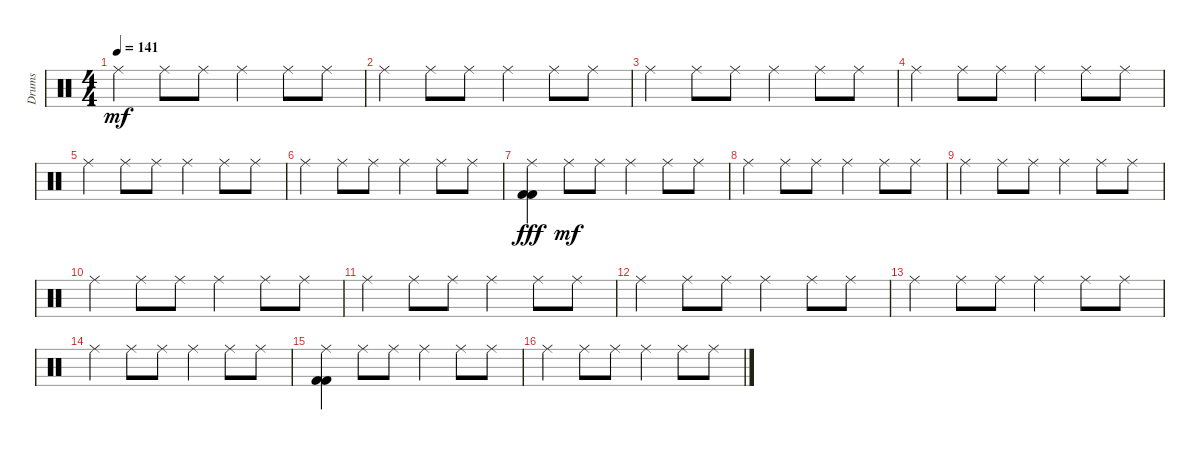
\track ("Drums" "Drums") {instrument percussion}
\staff {score}
\articulation defaults
\ts (4 4)
\tempo 141
\clef neutral
\ks c "Ride (middle)".4{dy mf} "Ride (middle)".8 "Ride (middle)".8 "Ride (middle)".4 "Ride (middle)".8 "Ride (middle)".8
|
"Ride (middle)".4 "Ride (middle)".8 "Ride (middle)".8 "Ride (middle)".4 "Ride (middle)".8 "Ride (middle)".8 |
"Ride (middle)".4 "Ride (middle)".8 "Ride (middle)".8 "Ride (middle)".4 "Ride (middle)".8 "Ride (middle)".8 |
"Ride (middle)".4 "Ride (middle)".8 "Ride (middle)".8 "Ride (middle)".4 "Ride (middle)".8 "Ride (middle)".8 |
"Ride (middle)".4 "Ride (middle)".8 "Ride (middle)".8 "Ride (middle)".4 "Ride (middle)".8 "Ride (middle)".8 |
"Ride (middle)".4 "Ride (middle)".8 "Ride (middle)".8 "Ride (middle)".4 "Ride (middle)".8 "Ride (middle)".8 |
("Ride (middle)" "Kick (hit) 2" "Kick (hit) 2").4{dy fff} "Ride (middle)".8{dy mf} "Ride (middle)".8 "Ride (middle)".4 "Ride (middle)".8 "Ride (middle)".8 |
"Ride (middle)".4 "Ride (middle)".8 "Ride (middle)".8 "Ride (middle)".4 "Ride (middle)".8 "Ride (middle)".8 |
"Ride (middle)".4 "Ride (middle)".8 "Ride (middle)".8 "Ride (middle)".4 "Ride (middle)".8 "Ride (middle)".8 |
"Ride (middle)".4 "Ride (middle)".8 "Ride (middle)".8 "Ride (middle)".4 "Ride (middle)".8 "Ride (middle)".8 |
"Ride (middle)".4 "Ride (middle)".8 "Ride (middle)".8 "Ride (middle)".4 "Ride (middle)".8 "Ride (middle)".8 |
"Ride (middle)".4 "Ride (middle)".8 "Ride (middle)".8 "Ride (middle)".4 "Ride (middle)".8 "Ride (middle)".8 |
"Ride (middle)".4 "Ride (middle)".8 "Ride (middle)".8 "Ride (middle)".4 "Ride (middle)".8 "Ride (middle)".8 |
"Ride (middle)".4 "Ride (middle)".8 "Ride (middle)".8 "Ride (middle)".4 "Ride (middle)".8 "Ride (middle)".8 |
("Ride (middle)" "Kick (hit) 2" "Kick (hit) 2").4 "Ride (middle)".8 "Ride (middle)".8 "Ride (middle)".4 "Ride (middle)".8 "Ride (middle)".8 |
"Ride (middle)".4 "Ride (middle)".8 "Ride (middle)".8 "Ride (middle)".4 "Ride (middle)".8 "Ride (middle)".8
